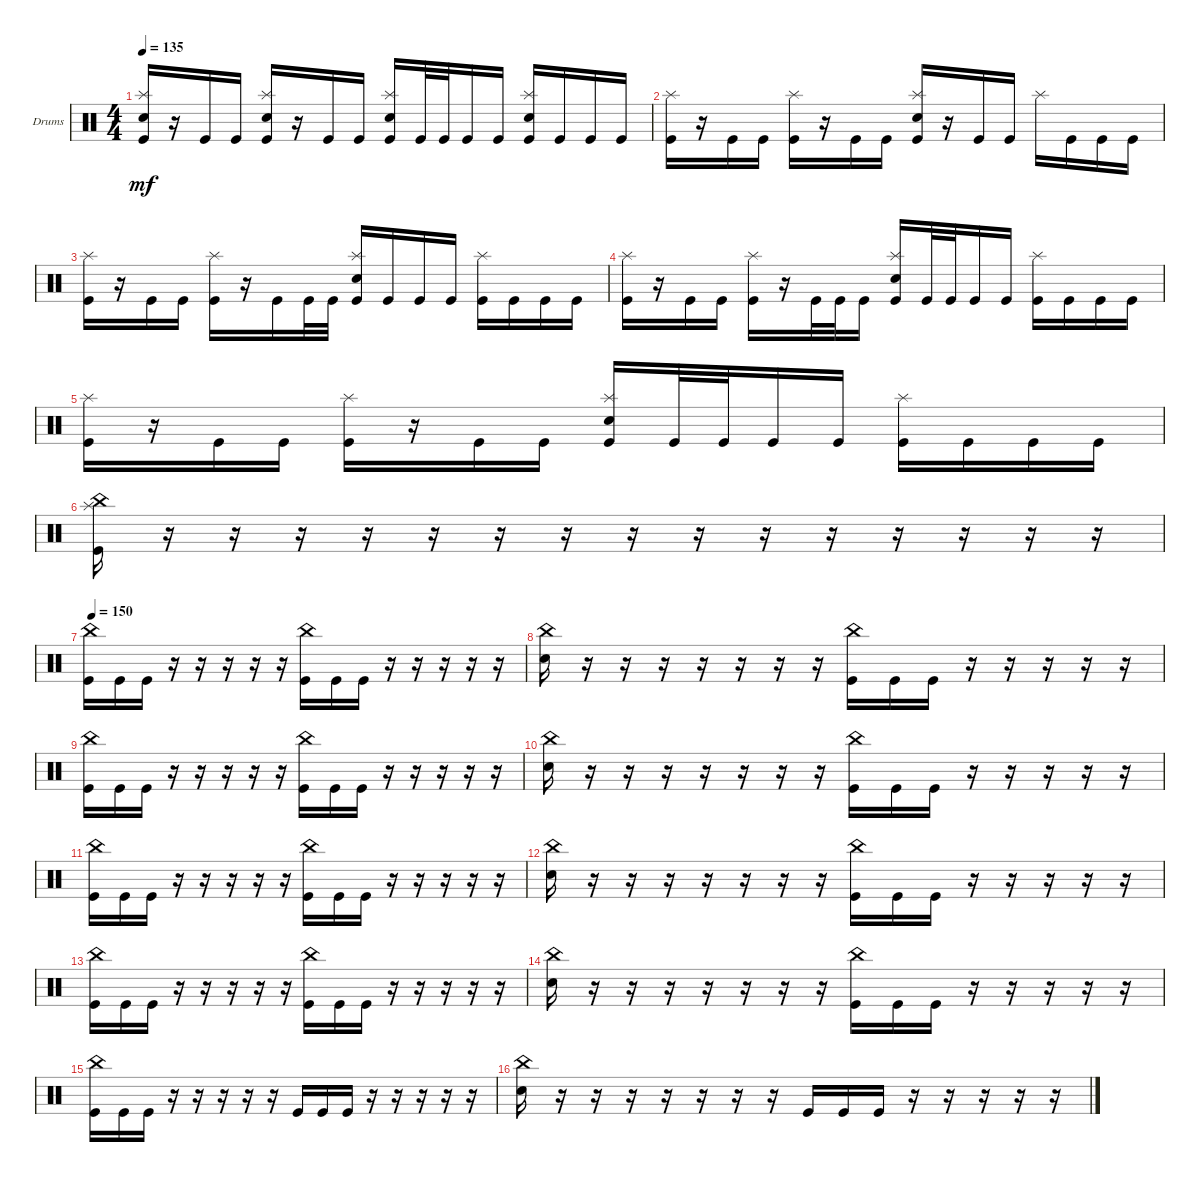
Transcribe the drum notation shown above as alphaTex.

\defaultSystemsLayout 4
\bracketExtendMode groupsimilarinstruments
\firstSystemTrackNameOrientation horizontal
\otherSystemsTrackNameOrientation horizontal
\track ("Drumkit" "Drums") {instrument percussion}
\staff {score}
\articulation defaults
\ts (4 4)
\tempo 135
\clef neutral
\ks c
("Kick (hit)" "Splash (hit)" "Snare (hit) 2").16{dy mf} r.16 "Kick (hit)".16 "Kick (hit)".16 ("Kick (hit)" "Splash (hit)" "Snare (hit) 2").16 r.16 "Kick (hit)".16 "Kick (hit)".16 ("Kick (hit)" "Splash (hit)" "Snare (hit) 2").16 "Kick (hit)".32 "Kick (hit)".32 "Kick (hit)".16 "Kick (hit)".16 ("Kick (hit)" "Splash (hit)" "Snare (hit) 2").16 "Kick (hit)".16 "Kick (hit)".16 "Kick (hit)".16 |
("Kick (hit)" "Splash (hit)").16 r.16 "Kick (hit)".16 "Kick (hit)".16 ("Kick (hit)" "Splash (hit)").16 r.16 "Kick (hit)".16 "Kick (hit)".16 ("Kick (hit)" "Splash (hit)" "Snare (hit) 2").16 r.16 "Kick (hit)".16 "Kick (hit)".16 "Splash (hit)".16 "Kick (hit)".16 "Kick (hit)".16 "Kick (hit)".16 |
("Kick (hit)" "Splash (hit)").16 r.16 "Kick (hit)".16 "Kick (hit)".16 ("Kick (hit)" "Splash (hit)").16 r.16 "Kick (hit)".16 "Kick (hit)".32 "Kick (hit)".32 ("Kick (hit)" "Splash (hit)" "Snare (hit) 2").16 "Kick (hit)".16 "Kick (hit)".16 "Kick (hit)".16 ("Kick (hit)" "Splash (hit)").16 "Kick (hit)".16 "Kick (hit)".16 "Kick (hit)".16 |
("Kick (hit)" "Splash (hit)").16 r.16 "Kick (hit)".16 "Kick (hit)".16 ("Kick (hit)" "Splash (hit)").16 r.16 "Kick (hit)".32 "Kick (hit)".32 "Kick (hit)".16 ("Kick (hit)" "Splash (hit)" "Snare (hit) 2").16 "Kick (hit)".32 "Kick (hit)".32 "Kick (hit)".16 "Kick (hit)".16 ("Kick (hit)" "Splash (hit)").16 "Kick (hit)".16 "Kick (hit)".16 "Kick (hit)".16 |
("Kick (hit)" "Splash (hit)").16 r.16 "Kick (hit)".16 "Kick (hit)".16 ("Kick (hit)" "Splash (hit)").16 r.16 "Kick (hit)".16 "Kick (hit)".16 ("Kick (hit)" "Splash (hit)" "Snare (hit) 2").16 "Kick (hit)".32 "Kick (hit)".32 "Kick (hit)".16 "Kick (hit)".16 ("Kick (hit)" "Splash (hit)").16 "Kick (hit)".16 "Kick (hit)".16 "Kick (hit)".16 |
("Kick (hit)" "Splash (hit)" "China (hit)").16 r.16 r.16 r.16 r.16 r.16 r.16 r.16 r.16 r.16 r.16 r.16 r.16 r.16 r.16 r.16 |
\tempo 150
("Kick (hit)" "China (hit)").16 "Kick (hit)".16 "Kick (hit)".16 r.16 r.16 r.16 r.16 r.16 ("Kick (hit)" "China (hit)").16 "Kick (hit)".16 "Kick (hit)".16 r.16 r.16 r.16 r.16 r.16 |
("China (hit)" "Snare (hit) 2").16 r.16 r.16 r.16 r.16 r.16 r.16 r.16 ("Kick (hit)" "China (hit)").16 "Kick (hit)".16 "Kick (hit)".16 r.16 r.16 r.16 r.16 r.16 |
("Kick (hit)" "China (hit)").16 "Kick (hit)".16 "Kick (hit)".16 r.16 r.16 r.16 r.16 r.16 ("Kick (hit)" "China (hit)").16 "Kick (hit)".16 "Kick (hit)".16 r.16 r.16 r.16 r.16 r.16 |
("China (hit)" "Snare (hit) 2").16 r.16 r.16 r.16 r.16 r.16 r.16 r.16 ("Kick (hit)" "China (hit)").16 "Kick (hit)".16 "Kick (hit)".16 r.16 r.16 r.16 r.16 r.16 |
("Kick (hit)" "China (hit)").16 "Kick (hit)".16 "Kick (hit)".16 r.16 r.16 r.16 r.16 r.16 ("Kick (hit)" "China (hit)").16 "Kick (hit)".16 "Kick (hit)".16 r.16 r.16 r.16 r.16 r.16 |
("China (hit)" "Snare (hit) 2").16 r.16 r.16 r.16 r.16 r.16 r.16 r.16 ("Kick (hit)" "China (hit)").16 "Kick (hit)".16 "Kick (hit)".16 r.16 r.16 r.16 r.16 r.16 |
("Kick (hit)" "China (hit)").16 "Kick (hit)".16 "Kick (hit)".16 r.16 r.16 r.16 r.16 r.16 ("Kick (hit)" "China (hit)").16 "Kick (hit)".16 "Kick (hit)".16 r.16 r.16 r.16 r.16 r.16 |
("China (hit)" "Snare (hit) 2").16 r.16 r.16 r.16 r.16 r.16 r.16 r.16 ("Kick (hit)" "China (hit)").16 "Kick (hit)".16 "Kick (hit)".16 r.16 r.16 r.16 r.16 r.16 |
("Kick (hit)" "China (hit)").16 "Kick (hit)".16 "Kick (hit)".16 r.16 r.16 r.16 r.16 r.16 "Kick (hit)".16 "Kick (hit)".16 "Kick (hit)".16 r.16 r.16 r.16 r.16 r.16 |
("China (hit)" "Snare (hit) 2").16 r.16 r.16 r.16 r.16 r.16 r.16 r.16 "Kick (hit)".16 "Kick (hit)".16 "Kick (hit)".16 r.16 r.16 r.16 r.16 r.16
